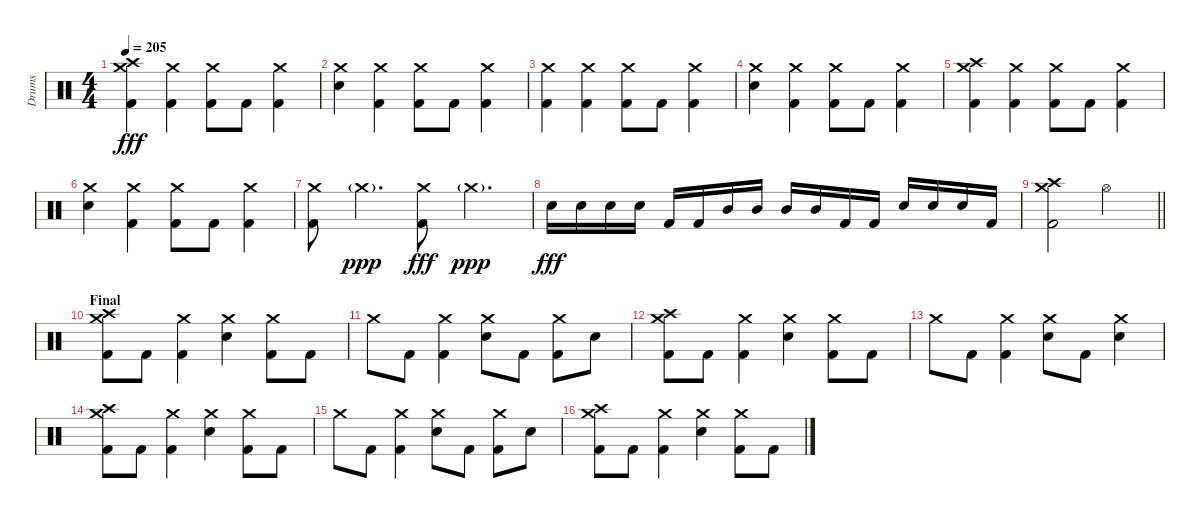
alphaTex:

\track ("Drums" "Drums") {instrument percussion}
\staff {score}
\articulation defaults
\ts (4 4)
\tempo 205
\clef neutral
\ks c
("Crash medium (hit)" "Crash high (hit)" "Kick (hit) 2").4{dy fff} ("Crash medium (hit)" "Kick (hit) 2").4 ("Crash medium (hit)" "Kick (hit) 2").8 "Kick (hit) 2".8 ("Crash medium (hit)" "Kick (hit) 2").4 |
("Crash medium (hit)" "Electric Snare (hit)").4 ("Crash medium (hit)" "Kick (hit) 2").4 ("Crash medium (hit)" "Kick (hit) 2").8 "Kick (hit) 2".8 ("Crash medium (hit)" "Kick (hit) 2").4 |
("Crash medium (hit)" "Kick (hit) 2").4 ("Crash medium (hit)" "Kick (hit) 2").4 ("Crash medium (hit)" "Kick (hit) 2").8 "Kick (hit) 2".8 ("Crash medium (hit)" "Kick (hit) 2").4 |
("Crash medium (hit)" "Electric Snare (hit)").4 ("Crash medium (hit)" "Kick (hit) 2").4 ("Crash medium (hit)" "Kick (hit) 2").8 "Kick (hit) 2".8 ("Crash medium (hit)" "Kick (hit) 2").4 |
("Crash medium (hit)" "Crash high (hit)" "Kick (hit) 2").4 ("Crash medium (hit)" "Kick (hit) 2").4 ("Crash medium (hit)" "Kick (hit) 2").8 "Kick (hit) 2".8 ("Crash medium (hit)" "Kick (hit) 2").4 |
("Crash medium (hit)" "Electric Snare (hit)").4 ("Crash medium (hit)" "Kick (hit) 2").4 ("Crash medium (hit)" "Kick (hit) 2").8 "Kick (hit) 2".8 ("Crash medium (hit)" "Kick (hit) 2").4 |
("Crash medium (hit)" "Kick (hit) 2").8 "Crash medium (hit)"{g}.4{d dy ppp} ("Crash medium (hit)" "Kick (hit) 2").8{dy fff} "Crash medium (hit)"{g}.4{d dy ppp} |
"Electric Snare (hit)".16{dy fff} "Electric Snare (hit)".16 "Electric Snare (hit)".16 "Electric Snare (hit)".16 "Kick (hit) 2".16 "Kick (hit) 2".16 "Mid Tom (hit)".16 "Mid Tom (hit)".16 "Mid Tom (hit)".16 "Mid Tom (hit)".16 "Kick (hit) 2".16 "Kick (hit) 2".16 "Electric Snare (hit)".16 "Electric Snare (hit)".16 "Electric Snare (hit)".16 "Kick (hit) 2".16 |
\barLineRight lightlight
("Crash medium (hit)" "Crash high (hit)" "Kick (hit) 2").2 "Hi-Hat (open)".2 |
\section ("" "Final ")
("Crash medium (hit)" "Crash high (hit)" "Kick (hit) 2").8 "Kick (hit) 2".8 ("Crash medium (hit)" "Kick (hit) 2").4 ("Crash medium (hit)" "Electric Snare (hit)").4 ("Crash medium (hit)" "Kick (hit) 2").8 "Kick (hit) 2".8 |
"Crash medium (hit)".8 "Kick (hit) 2".8 ("Crash medium (hit)" "Kick (hit) 2").4 ("Crash medium (hit)" "Electric Snare (hit)").8 "Kick (hit) 2".8 ("Crash medium (hit)" "Kick (hit) 2").8 "Electric Snare (hit)".8 |
("Crash medium (hit)" "Crash high (hit)" "Kick (hit) 2").8 "Kick (hit) 2".8 ("Crash medium (hit)" "Kick (hit) 2").4 ("Crash medium (hit)" "Electric Snare (hit)").4 ("Crash medium (hit)" "Kick (hit) 2").8 "Kick (hit) 2".8 |
"Crash medium (hit)".8 "Kick (hit) 2".8 ("Crash medium (hit)" "Kick (hit) 2").4 ("Crash medium (hit)" "Electric Snare (hit)").8 "Kick (hit) 2".8 ("Crash medium (hit)" "Electric Snare (hit)").4 |
("Crash medium (hit)" "Crash high (hit)" "Kick (hit) 2").8 "Kick (hit) 2".8 ("Crash medium (hit)" "Kick (hit) 2").4 ("Crash medium (hit)" "Electric Snare (hit)").4 ("Crash medium (hit)" "Kick (hit) 2").8 "Kick (hit) 2".8 |
"Crash medium (hit)".8 "Kick (hit) 2".8 ("Crash medium (hit)" "Kick (hit) 2").4 ("Crash medium (hit)" "Electric Snare (hit)").8 "Kick (hit) 2".8 ("Crash medium (hit)" "Kick (hit) 2").8 "Electric Snare (hit)".8 |
("Crash medium (hit)" "Crash high (hit)" "Kick (hit) 2").8 "Kick (hit) 2".8 ("Crash medium (hit)" "Kick (hit) 2").4 ("Crash medium (hit)" "Electric Snare (hit)").4 ("Crash medium (hit)" "Kick (hit) 2").8 "Kick (hit) 2".8
